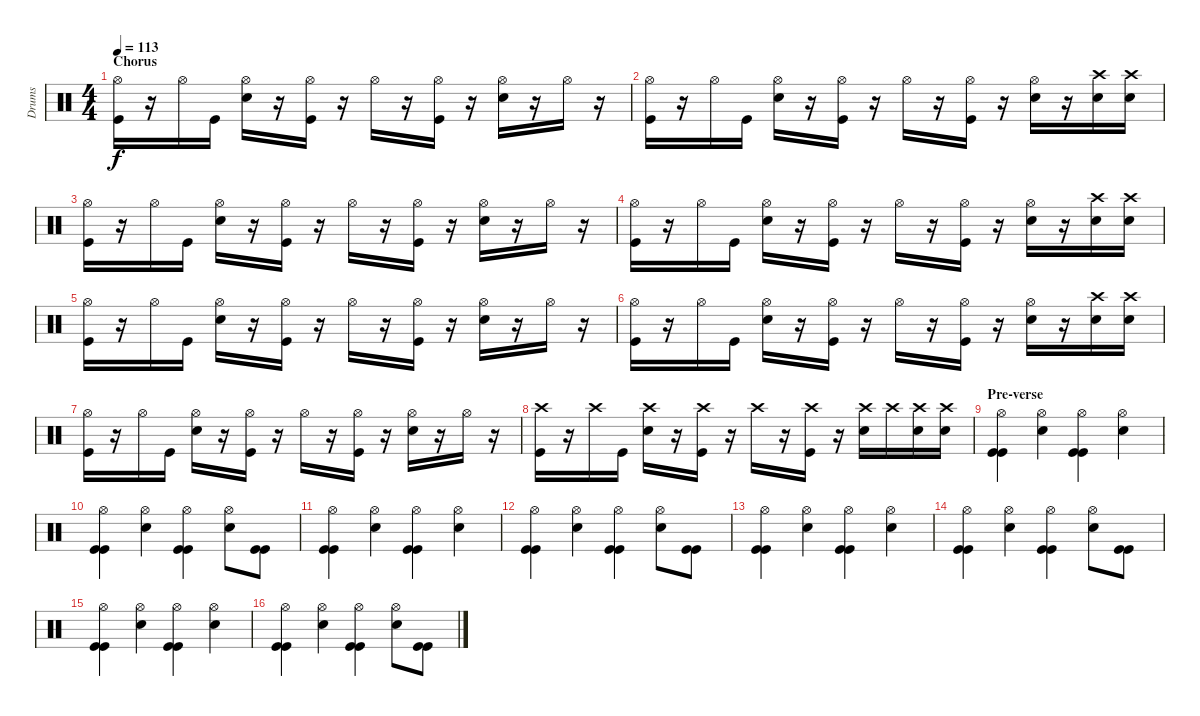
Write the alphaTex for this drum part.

\track ("Drums" "Drums") {instrument percussion}
\staff {score}
\articulation defaults
\ts (4 4)
\section ("" "Chorus")
\tempo 113
\clef neutral
\ks c
("Hi-Hat (open)" "Kick (hit)").16{dy f} r.16 "Hi-Hat (open)".16 "Kick (hit)".16 ("Hi-Hat (open)" "Snare (hit) 2").16 r.16 ("Hi-Hat (open)" "Kick (hit)").16 r.16 "Hi-Hat (open)".16 r.16 ("Hi-Hat (open)" "Kick (hit)").16 r.16 ("Hi-Hat (open)" "Snare (hit) 2").16 r.16 "Hi-Hat (open)".16 r.16 |
("Hi-Hat (open)" "Kick (hit)").16 r.16 "Hi-Hat (open)".16 "Kick (hit)".16 ("Hi-Hat (open)" "Snare (hit) 2").16 r.16 ("Hi-Hat (open)" "Kick (hit)").16 r.16 "Hi-Hat (open)".16 r.16 ("Hi-Hat (open)" "Kick (hit)").16 r.16 ("Hi-Hat (open)" "Snare (hit) 2").16 r.16 ("Crash high (hit)" "Snare (hit) 2").16 ("Crash high (hit)" "Snare (hit) 2").16 |
("Hi-Hat (open)" "Kick (hit)").16 r.16 "Hi-Hat (open)".16 "Kick (hit)".16 ("Hi-Hat (open)" "Snare (hit) 2").16 r.16 ("Hi-Hat (open)" "Kick (hit)").16 r.16 "Hi-Hat (open)".16 r.16 ("Hi-Hat (open)" "Kick (hit)").16 r.16 ("Hi-Hat (open)" "Snare (hit) 2").16 r.16 "Hi-Hat (open)".16 r.16 |
("Hi-Hat (open)" "Kick (hit)").16 r.16 "Hi-Hat (open)".16 "Kick (hit)".16 ("Hi-Hat (open)" "Snare (hit) 2").16 r.16 ("Hi-Hat (open)" "Kick (hit)").16 r.16 "Hi-Hat (open)".16 r.16 ("Hi-Hat (open)" "Kick (hit)").16 r.16 ("Hi-Hat (open)" "Snare (hit) 2").16 r.16 ("Crash high (hit)" "Snare (hit) 2").16 ("Crash high (hit)" "Snare (hit) 2").16 |
("Hi-Hat (open)" "Kick (hit)").16 r.16 "Hi-Hat (open)".16 "Kick (hit)".16 ("Hi-Hat (open)" "Snare (hit) 2").16 r.16 ("Hi-Hat (open)" "Kick (hit)").16 r.16 "Hi-Hat (open)".16 r.16 ("Hi-Hat (open)" "Kick (hit)").16 r.16 ("Hi-Hat (open)" "Snare (hit) 2").16 r.16 "Hi-Hat (open)".16 r.16 |
("Hi-Hat (open)" "Kick (hit)").16 r.16 "Hi-Hat (open)".16 "Kick (hit)".16 ("Hi-Hat (open)" "Snare (hit) 2").16 r.16 ("Hi-Hat (open)" "Kick (hit)").16 r.16 "Hi-Hat (open)".16 r.16 ("Hi-Hat (open)" "Kick (hit)").16 r.16 ("Hi-Hat (open)" "Snare (hit) 2").16 r.16 ("Crash high (hit)" "Snare (hit) 2").16 ("Crash high (hit)" "Snare (hit) 2").16 |
("Hi-Hat (open)" "Kick (hit)").16 r.16 "Hi-Hat (open)".16 "Kick (hit)".16 ("Hi-Hat (open)" "Snare (hit) 2").16 r.16 ("Hi-Hat (open)" "Kick (hit)").16 r.16 "Hi-Hat (open)".16 r.16 ("Hi-Hat (open)" "Kick (hit)").16 r.16 ("Hi-Hat (open)" "Snare (hit) 2").16 r.16 "Hi-Hat (open)".16 r.16 |
("Crash high (hit)" "Kick (hit)").16 r.16 "Crash high (hit)".16 "Kick (hit)".16 ("Crash high (hit)" "Snare (hit) 2").16 r.16 ("Crash high (hit)" "Kick (hit)").16 r.16 "Crash high (hit)".16 r.16 ("Crash high (hit)" "Kick (hit)").16 r.16 ("Crash high (hit)" "Snare (hit) 2").16 "Crash high (hit)".16 ("Crash high (hit)" "Snare (hit) 2").16 ("Crash high (hit)" "Snare (hit) 2").16 |
\section ("" "Pre-verse")
("Hi-Hat (open)" "Kick (hit)" "Kick (hit)").4 ("Hi-Hat (open)" "Snare (hit) 2").4 ("Hi-Hat (open)" "Kick (hit)" "Kick (hit)").4 ("Hi-Hat (open)" "Snare (hit) 2").4 |
("Hi-Hat (open)" "Kick (hit)" "Kick (hit)").4 ("Hi-Hat (open)" "Snare (hit) 2").4 ("Hi-Hat (open)" "Kick (hit)" "Kick (hit)").4 ("Hi-Hat (open)" "Snare (hit) 2").8 ("Kick (hit)" "Kick (hit)").8 |
("Hi-Hat (open)" "Kick (hit)" "Kick (hit)").4 ("Hi-Hat (open)" "Snare (hit) 2").4 ("Hi-Hat (open)" "Kick (hit)" "Kick (hit)").4 ("Hi-Hat (open)" "Snare (hit) 2").4 |
("Hi-Hat (open)" "Kick (hit)" "Kick (hit)").4 ("Hi-Hat (open)" "Snare (hit) 2").4 ("Hi-Hat (open)" "Kick (hit)" "Kick (hit)").4 ("Hi-Hat (open)" "Snare (hit) 2").8 ("Kick (hit)" "Kick (hit)").8 |
("Hi-Hat (open)" "Kick (hit)" "Kick (hit)").4 ("Hi-Hat (open)" "Snare (hit) 2").4 ("Hi-Hat (open)" "Kick (hit)" "Kick (hit)").4 ("Hi-Hat (open)" "Snare (hit) 2").4 |
("Hi-Hat (open)" "Kick (hit)" "Kick (hit)").4 ("Hi-Hat (open)" "Snare (hit) 2").4 ("Hi-Hat (open)" "Kick (hit)" "Kick (hit)").4 ("Hi-Hat (open)" "Snare (hit) 2").8 ("Kick (hit)" "Kick (hit)").8 |
("Hi-Hat (open)" "Kick (hit)" "Kick (hit)").4 ("Hi-Hat (open)" "Snare (hit) 2").4 ("Hi-Hat (open)" "Kick (hit)" "Kick (hit)").4 ("Hi-Hat (open)" "Snare (hit) 2").4 |
("Hi-Hat (open)" "Kick (hit)" "Kick (hit)").4 ("Hi-Hat (open)" "Snare (hit) 2").4 ("Hi-Hat (open)" "Kick (hit)" "Kick (hit)").4 ("Hi-Hat (open)" "Snare (hit) 2").8 ("Kick (hit)" "Kick (hit)").8
